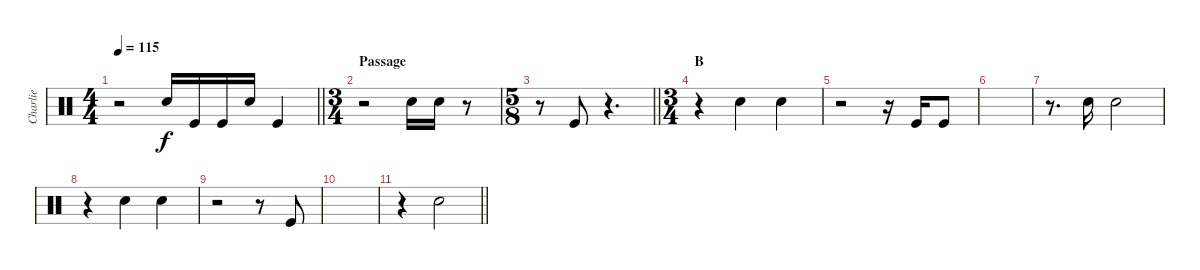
\track ("Charlie" "Charlie") {instrument percussion}
\staff {score}
\articulation defaults
\ts (4 4)
\tempo 115
\clef neutral
\barLineRight lightlight
\ks c
r.2{dy f} "Snare (hit) 2".16 "Kick (hit)".16 "Kick (hit)".16 "Snare (hit) 2".16 "Kick (hit)".4 |
\ts (3 4)
\section ("" "Passage")
r.2 "Snare (hit) 2".16 "Snare (hit) 2".16 r.8 |
\ts (5 8)
\barLineRight lightlight
r.8 "Kick (hit)".8 r.4{d} |
\ts (3 4)
\section ("" "B")
r.4 "Snare (hit) 2".4 "Snare (hit) 2".4 |
r.2 r.16 "Kick (hit)".16 "Kick (hit)".8 |
|
r.8{d} "Snare (hit) 2".16 "Snare (hit) 2".2 |
r.4 "Snare (hit) 2".4 "Snare (hit) 2".4 |
r.2 r.8 "Kick (hit)".8 |
|
\barLineRight lightlight
r.4 "Snare (hit) 2".2
